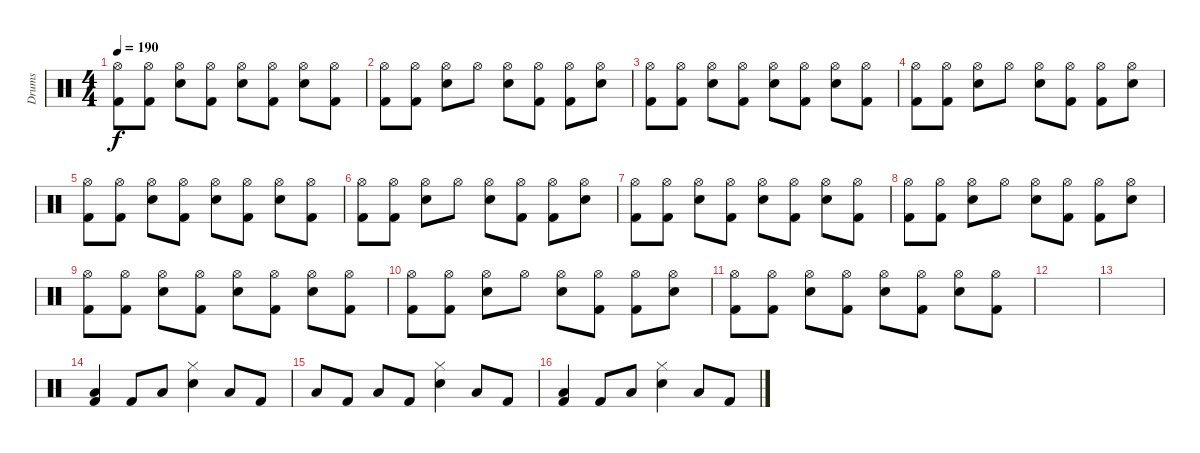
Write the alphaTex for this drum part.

\track ("Drums" "Drums") {instrument percussion}
\staff {score}
\articulation defaults
\ts (4 4)
\tempo 190
\clef neutral
\ks c
("Kick (hit) 2" "Hi-Hat (open)").8{dy f} ("Kick (hit) 2" "Hi-Hat (open)").8 ("Snare (hit) 2" "Hi-Hat (open)").8 ("Kick (hit) 2" "Hi-Hat (open)").8 ("Snare (hit) 2" "Hi-Hat (open)").8 ("Kick (hit) 2" "Hi-Hat (open)").8 ("Snare (hit) 2" "Hi-Hat (open)").8 ("Kick (hit) 2" "Hi-Hat (open)").8 |
("Kick (hit) 2" "Hi-Hat (open)").8 ("Kick (hit) 2" "Hi-Hat (open)").8 ("Snare (hit) 2" "Hi-Hat (open)").8 "Hi-Hat (open)".8 ("Snare (hit) 2" "Hi-Hat (open)").8 ("Kick (hit) 2" "Hi-Hat (open)").8 ("Kick (hit) 2" "Hi-Hat (open)").8 ("Snare (hit) 2" "Hi-Hat (open)").8 |
("Kick (hit) 2" "Hi-Hat (open)").8 ("Kick (hit) 2" "Hi-Hat (open)").8 ("Snare (hit) 2" "Hi-Hat (open)").8 ("Kick (hit) 2" "Hi-Hat (open)").8 ("Snare (hit) 2" "Hi-Hat (open)").8 ("Kick (hit) 2" "Hi-Hat (open)").8 ("Snare (hit) 2" "Hi-Hat (open)").8 ("Kick (hit) 2" "Hi-Hat (open)").8 |
("Kick (hit) 2" "Hi-Hat (open)").8 ("Kick (hit) 2" "Hi-Hat (open)").8 ("Snare (hit) 2" "Hi-Hat (open)").8 "Hi-Hat (open)".8 ("Snare (hit) 2" "Hi-Hat (open)").8 ("Kick (hit) 2" "Hi-Hat (open)").8 ("Kick (hit) 2" "Hi-Hat (open)").8 ("Snare (hit) 2" "Hi-Hat (open)").8 |
("Kick (hit) 2" "Hi-Hat (open)").8 ("Kick (hit) 2" "Hi-Hat (open)").8 ("Snare (hit) 2" "Hi-Hat (open)").8 ("Kick (hit) 2" "Hi-Hat (open)").8 ("Snare (hit) 2" "Hi-Hat (open)").8 ("Kick (hit) 2" "Hi-Hat (open)").8 ("Snare (hit) 2" "Hi-Hat (open)").8 ("Kick (hit) 2" "Hi-Hat (open)").8 |
("Kick (hit) 2" "Hi-Hat (open)").8 ("Kick (hit) 2" "Hi-Hat (open)").8 ("Snare (hit) 2" "Hi-Hat (open)").8 "Hi-Hat (open)".8 ("Snare (hit) 2" "Hi-Hat (open)").8 ("Kick (hit) 2" "Hi-Hat (open)").8 ("Kick (hit) 2" "Hi-Hat (open)").8 ("Snare (hit) 2" "Hi-Hat (open)").8 |
("Kick (hit) 2" "Hi-Hat (open)").8 ("Kick (hit) 2" "Hi-Hat (open)").8 ("Snare (hit) 2" "Hi-Hat (open)").8 ("Kick (hit) 2" "Hi-Hat (open)").8 ("Snare (hit) 2" "Hi-Hat (open)").8 ("Kick (hit) 2" "Hi-Hat (open)").8 ("Snare (hit) 2" "Hi-Hat (open)").8 ("Kick (hit) 2" "Hi-Hat (open)").8 |
("Kick (hit) 2" "Hi-Hat (open)").8 ("Kick (hit) 2" "Hi-Hat (open)").8 ("Snare (hit) 2" "Hi-Hat (open)").8 "Hi-Hat (open)".8 ("Snare (hit) 2" "Hi-Hat (open)").8 ("Kick (hit) 2" "Hi-Hat (open)").8 ("Kick (hit) 2" "Hi-Hat (open)").8 ("Snare (hit) 2" "Hi-Hat (open)").8 |
("Kick (hit) 2" "Hi-Hat (open)").8 ("Kick (hit) 2" "Hi-Hat (open)").8 ("Snare (hit) 2" "Hi-Hat (open)").8 ("Kick (hit) 2" "Hi-Hat (open)").8 ("Snare (hit) 2" "Hi-Hat (open)").8 ("Kick (hit) 2" "Hi-Hat (open)").8 ("Snare (hit) 2" "Hi-Hat (open)").8 ("Kick (hit) 2" "Hi-Hat (open)").8 |
("Kick (hit) 2" "Hi-Hat (open)").8 ("Kick (hit) 2" "Hi-Hat (open)").8 ("Snare (hit) 2" "Hi-Hat (open)").8 "Hi-Hat (open)".8 ("Snare (hit) 2" "Hi-Hat (open)").8 ("Kick (hit) 2" "Hi-Hat (open)").8 ("Kick (hit) 2" "Hi-Hat (open)").8 ("Snare (hit) 2" "Hi-Hat (open)").8 |
("Kick (hit) 2" "Hi-Hat (open)").8 ("Kick (hit) 2" "Hi-Hat (open)").8 ("Snare (hit) 2" "Hi-Hat (open)").8 ("Kick (hit) 2" "Hi-Hat (open)").8 ("Snare (hit) 2" "Hi-Hat (open)").8 ("Kick (hit) 2" "Hi-Hat (open)").8 ("Snare (hit) 2" "Hi-Hat (open)").8 ("Kick (hit) 2" "Hi-Hat (open)").8 |
|
|
("Kick (hit) 2" "Low Floor Tom (hit)").4 "Kick (hit) 2".8 "Low Floor Tom (hit)".8 ("Snare (hit) 2" "Hi-Hat (closed)").4 "Low Floor Tom (hit)".8 "Kick (hit) 2".8 |
"Low Floor Tom (hit)".8 "Kick (hit) 2".8 "Low Floor Tom (hit)".8 "Kick (hit) 2".8 ("Snare (hit) 2" "Hi-Hat (closed)").4 "Low Floor Tom (hit)".8 "Kick (hit) 2".8 |
("Kick (hit) 2" "Low Floor Tom (hit)").4 "Kick (hit) 2".8 "Low Floor Tom (hit)".8 ("Snare (hit) 2" "Hi-Hat (closed)").4 "Low Floor Tom (hit)".8 "Kick (hit) 2".8
